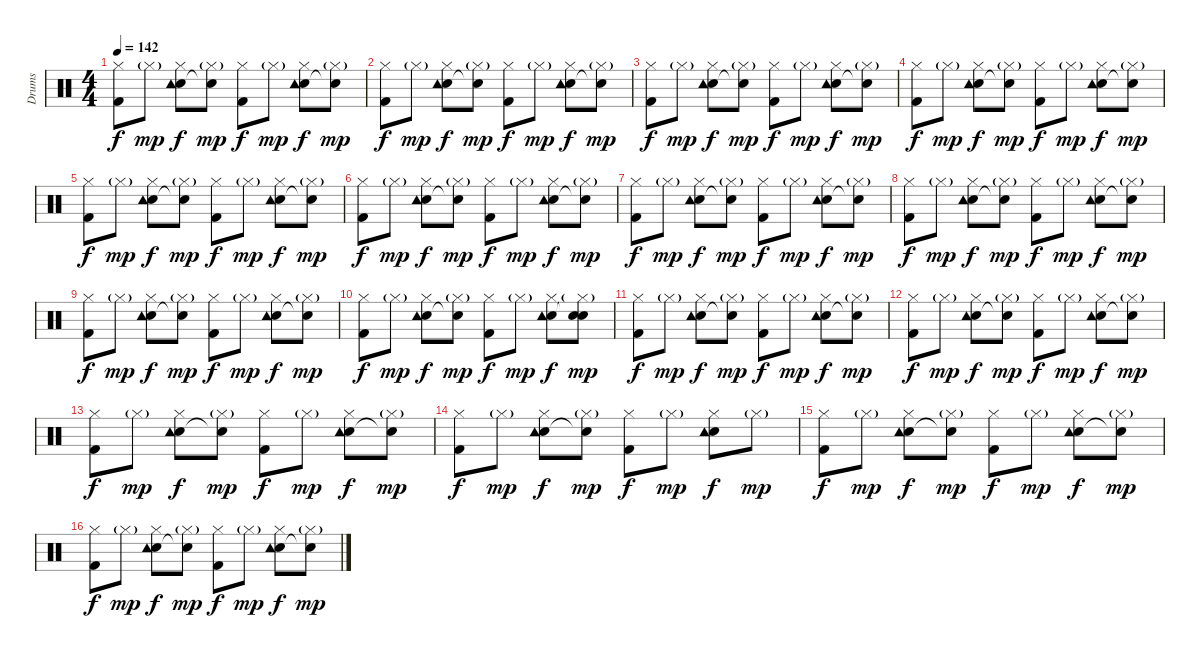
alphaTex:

\track ("Drums" "Drums") {instrument percussion}
\staff {score}
\articulation defaults
\ts (4 4)
\tempo 142
\clef neutral
\ks c
("Hi-Hat (closed)" "Kick (hit) 2").8{dy f} "Hi-Hat (closed)"{g}.8{dy mp} ("Hi-Hat (closed)" "Snare (hit) 2" "Tambourine (hit)").8{dy f} ("Hi-Hat (closed)"{g} "Snare (hit)"{t}).8{dy mp} ("Hi-Hat (closed)" "Kick (hit) 2").8{dy f} "Hi-Hat (closed)"{g}.8{dy mp} ("Hi-Hat (closed)" "Snare (hit) 2" "Tambourine (hit)").8{dy f} ("Hi-Hat (closed)"{g} "Snare (hit)"{t}).8{dy mp} |
("Hi-Hat (closed)" "Kick (hit) 2").8{dy f} "Hi-Hat (closed)"{g}.8{dy mp} ("Hi-Hat (closed)" "Snare (hit) 2" "Tambourine (hit)").8{dy f} ("Hi-Hat (closed)"{g} "Snare (hit)"{t}).8{dy mp} ("Hi-Hat (closed)" "Kick (hit) 2").8{dy f} "Hi-Hat (closed)"{g}.8{dy mp} ("Hi-Hat (closed)" "Snare (hit) 2" "Tambourine (hit)").8{dy f} ("Hi-Hat (closed)"{g} "Snare (hit)"{t}).8{dy mp} |
("Hi-Hat (closed)" "Kick (hit) 2").8{dy f} "Hi-Hat (closed)"{g}.8{dy mp} ("Hi-Hat (closed)" "Snare (hit) 2" "Tambourine (hit)").8{dy f} ("Hi-Hat (closed)"{g} "Snare (hit)"{t}).8{dy mp} ("Hi-Hat (closed)" "Kick (hit) 2").8{dy f} "Hi-Hat (closed)"{g}.8{dy mp} ("Hi-Hat (closed)" "Snare (hit) 2" "Tambourine (hit)").8{dy f} ("Hi-Hat (closed)"{g} "Snare (hit)"{t}).8{dy mp} |
("Hi-Hat (closed)" "Kick (hit) 2").8{dy f} "Hi-Hat (closed)"{g}.8{dy mp} ("Hi-Hat (closed)" "Snare (hit) 2" "Tambourine (hit)").8{dy f} ("Hi-Hat (closed)"{g} "Snare (hit)"{t}).8{dy mp} ("Hi-Hat (closed)" "Kick (hit) 2").8{dy f} "Hi-Hat (closed)"{g}.8{dy mp} ("Hi-Hat (closed)" "Snare (hit) 2" "Tambourine (hit)").8{dy f} ("Hi-Hat (closed)"{g} "Snare (hit)"{t}).8{dy mp} |
("Hi-Hat (closed)" "Kick (hit) 2").8{dy f} "Hi-Hat (closed)"{g}.8{dy mp} ("Hi-Hat (closed)" "Snare (hit) 2" "Tambourine (hit)").8{dy f} ("Hi-Hat (closed)"{g} "Snare (hit)"{t}).8{dy mp} ("Hi-Hat (closed)" "Kick (hit) 2").8{dy f} "Hi-Hat (closed)"{g}.8{dy mp} ("Hi-Hat (closed)" "Snare (hit) 2" "Tambourine (hit)").8{dy f} ("Hi-Hat (closed)"{g} "Snare (hit)"{t}).8{dy mp} |
("Hi-Hat (closed)" "Kick (hit) 2").8{dy f} "Hi-Hat (closed)"{g}.8{dy mp} ("Hi-Hat (closed)" "Snare (hit) 2" "Tambourine (hit)").8{dy f} ("Hi-Hat (closed)"{g} "Snare (hit)"{t}).8{dy mp} ("Hi-Hat (closed)" "Kick (hit) 2").8{dy f} "Hi-Hat (closed)"{g}.8{dy mp} ("Hi-Hat (closed)" "Snare (hit) 2" "Tambourine (hit)").8{dy f} ("Hi-Hat (closed)"{g} "Snare (hit)"{t}).8{dy mp} |
("Hi-Hat (closed)" "Kick (hit) 2").8{dy f} "Hi-Hat (closed)"{g}.8{dy mp} ("Hi-Hat (closed)" "Snare (hit) 2" "Tambourine (hit)").8{dy f} ("Hi-Hat (closed)"{g} "Snare (hit)"{t}).8{dy mp} ("Hi-Hat (closed)" "Kick (hit) 2").8{dy f} "Hi-Hat (closed)"{g}.8{dy mp} ("Hi-Hat (closed)" "Snare (hit) 2" "Tambourine (hit)").8{dy f} ("Hi-Hat (closed)"{g} "Snare (hit)"{t}).8{dy mp} |
("Hi-Hat (closed)" "Kick (hit) 2").8{dy f} "Hi-Hat (closed)"{g}.8{dy mp} ("Hi-Hat (closed)" "Snare (hit) 2" "Tambourine (hit)").8{dy f} ("Hi-Hat (closed)"{g} "Snare (hit)"{t}).8{dy mp} ("Hi-Hat (closed)" "Kick (hit) 2").8{dy f} "Hi-Hat (closed)"{g}.8{dy mp} ("Hi-Hat (closed)" "Snare (hit) 2" "Tambourine (hit)").8{dy f} ("Hi-Hat (closed)"{g} "Snare (hit)"{t}).8{dy mp} |
("Hi-Hat (closed)" "Kick (hit) 2").8{dy f} "Hi-Hat (closed)"{g}.8{dy mp} ("Hi-Hat (closed)" "Snare (hit) 2" "Tambourine (hit)").8{dy f} ("Hi-Hat (closed)"{g} "Snare (hit)"{t}).8{dy mp} ("Hi-Hat (closed)" "Kick (hit) 2").8{dy f} "Hi-Hat (closed)"{g}.8{dy mp} ("Hi-Hat (closed)" "Snare (hit) 2" "Tambourine (hit)").8{dy f} ("Hi-Hat (closed)"{g} "Snare (hit)"{t}).8{dy mp} |
("Hi-Hat (closed)" "Kick (hit) 2").8{dy f} "Hi-Hat (closed)"{g}.8{dy mp} ("Hi-Hat (closed)" "Snare (hit) 2" "Tambourine (hit)").8{dy f} ("Hi-Hat (closed)"{g} "Snare (hit)"{t}).8{dy mp} ("Hi-Hat (closed)" "Kick (hit) 2").8{dy f} "Hi-Hat (closed)"{g}.8{dy mp} ("Hi-Hat (closed)" "Snare (hit) 2" "Tambourine (hit)").8{dy f} ("Hi-Hat (closed)"{g} "Snare (hit) 2" "Snare (hit)"{t}).8{dy mp} |
("Hi-Hat (closed)" "Kick (hit) 2").8{dy f} "Hi-Hat (closed)"{g}.8{dy mp} ("Hi-Hat (closed)" "Snare (hit) 2" "Tambourine (hit)").8{dy f} ("Hi-Hat (closed)"{g} "Snare (hit)"{t}).8{dy mp} ("Hi-Hat (closed)" "Kick (hit) 2").8{dy f} "Hi-Hat (closed)"{g}.8{dy mp} ("Hi-Hat (closed)" "Snare (hit) 2" "Tambourine (hit)").8{dy f} ("Hi-Hat (closed)"{g} "Snare (hit)"{t}).8{dy mp} |
("Hi-Hat (closed)" "Kick (hit) 2").8{dy f} "Hi-Hat (closed)"{g}.8{dy mp} ("Hi-Hat (closed)" "Snare (hit) 2" "Tambourine (hit)").8{dy f} ("Hi-Hat (closed)"{g} "Snare (hit)"{t}).8{dy mp} ("Hi-Hat (closed)" "Kick (hit) 2").8{dy f} "Hi-Hat (closed)"{g}.8{dy mp} ("Hi-Hat (closed)" "Snare (hit) 2" "Tambourine (hit)").8{dy f} ("Hi-Hat (closed)"{g} "Snare (hit)"{t}).8{dy mp} |
("Hi-Hat (closed)" "Kick (hit) 2").8{dy f} "Hi-Hat (closed)"{g}.8{dy mp} ("Hi-Hat (closed)" "Snare (hit) 2" "Tambourine (hit)").8{dy f} ("Hi-Hat (closed)"{g} "Snare (hit)"{t}).8{dy mp} ("Hi-Hat (closed)" "Kick (hit) 2").8{dy f} "Hi-Hat (closed)"{g}.8{dy mp} ("Hi-Hat (closed)" "Snare (hit) 2" "Tambourine (hit)").8{dy f} ("Hi-Hat (closed)"{g} "Snare (hit)"{t}).8{dy mp} |
("Hi-Hat (closed)" "Kick (hit) 2").8{dy f} "Hi-Hat (closed)"{g}.8{dy mp} ("Hi-Hat (closed)" "Snare (hit) 2" "Tambourine (hit)").8{dy f} ("Hi-Hat (closed)"{g} "Snare (hit)"{t}).8{dy mp} ("Hi-Hat (closed)" "Kick (hit) 2").8{dy f} "Hi-Hat (closed)"{g}.8{dy mp} ("Hi-Hat (closed)" "Snare (hit) 2" "Tambourine (hit)").8{dy f} "Hi-Hat (closed)"{g}.8{dy mp} |
("Hi-Hat (closed)" "Kick (hit) 2").8{dy f} "Hi-Hat (closed)"{g}.8{dy mp} ("Hi-Hat (closed)" "Snare (hit) 2" "Tambourine (hit)").8{dy f} ("Hi-Hat (closed)"{g} "Snare (hit)"{t}).8{dy mp} ("Hi-Hat (closed)" "Kick (hit) 2").8{dy f} "Hi-Hat (closed)"{g}.8{dy mp} ("Hi-Hat (closed)" "Snare (hit) 2" "Tambourine (hit)").8{dy f} ("Hi-Hat (closed)"{g} "Snare (hit)"{t}).8{dy mp} |
("Hi-Hat (closed)" "Kick (hit) 2").8{dy f} "Hi-Hat (closed)"{g}.8{dy mp} ("Hi-Hat (closed)" "Snare (hit) 2" "Tambourine (hit)").8{dy f} ("Hi-Hat (closed)"{g} "Snare (hit)"{t}).8{dy mp} ("Hi-Hat (closed)" "Kick (hit) 2").8{dy f} "Hi-Hat (closed)"{g}.8{dy mp} ("Hi-Hat (closed)" "Snare (hit) 2" "Tambourine (hit)").8{dy f} ("Hi-Hat (closed)"{g} "Snare (hit)"{t}).8{dy mp}
